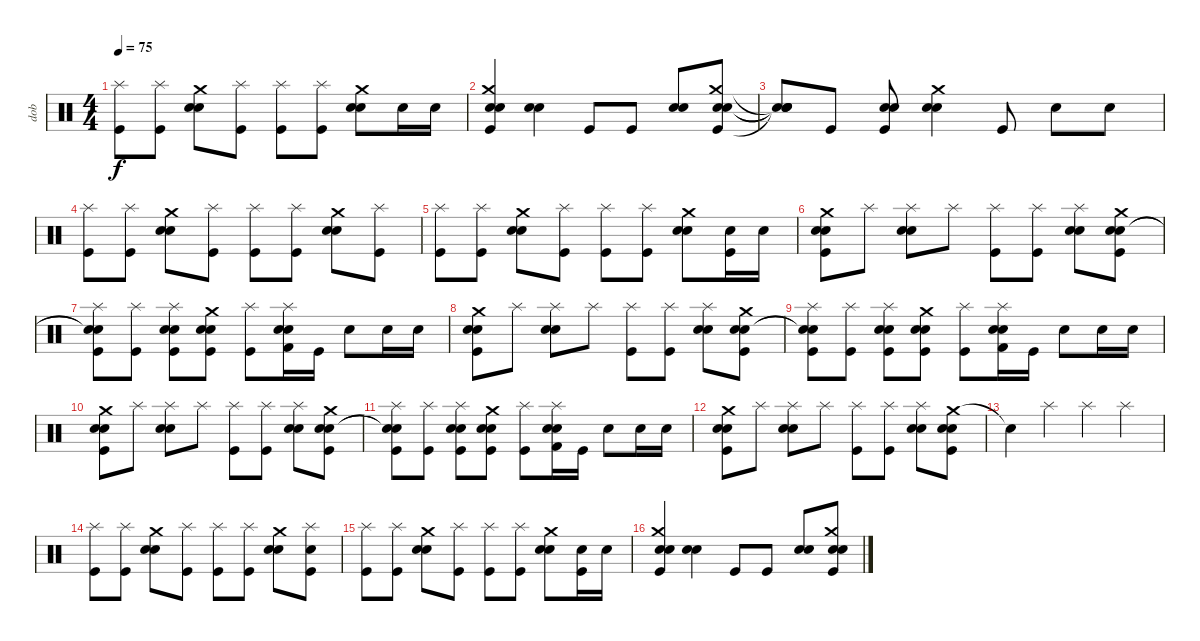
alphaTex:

\track ("dob" "dob") {instrument percussion}
\staff {score}
\articulation defaults
\ts (4 4)
\tempo 75
\clef neutral
\ks c
("Splash (hit)" "Kick (hit)").8{dy f} ("Splash (hit)" "Kick (hit)").8 ("Crash medium (hit)" "Snare (hit) 2" "Electric Snare (hit)").8 ("Splash (hit)" "Kick (hit)").8 ("Splash (hit)" "Kick (hit)").8 ("Splash (hit)" "Kick (hit)").8 ("Crash medium (hit)" "Snare (hit) 2" "Electric Snare (hit)").8 "Snare (hit) 2".16 "Snare (hit) 2".16 |
("Crash medium (hit)" "Snare (hit) 2" "Electric Snare (hit)" "Kick (hit)").4 ("Snare (hit) 2" "Electric Snare (hit)").4 "Kick (hit)".8 "Kick (hit)".8 ("Snare (hit) 2" "Electric Snare (hit)").8 ("Crash medium (hit)" "Snare (hit) 2" "Electric Snare (hit)" "Kick (hit)").8 |
("Snare (hit)"{t} "Snare (hit)"{t} "Snare (hit)"{t} "Snare (hit)"{t}).8 "Kick (hit)".8 ("Snare (hit) 2" "Electric Snare (hit)" "Kick (hit)").8 ("Crash medium (hit)" "Snare (hit) 2" "Electric Snare (hit)").4 "Kick (hit)".8 "Snare (hit) 2".8 "Snare (hit) 2".8 |
("Splash (hit)" "Kick (hit)").8 ("Splash (hit)" "Kick (hit)").8 ("Crash medium (hit)" "Snare (hit) 2" "Electric Snare (hit)").8 ("Splash (hit)" "Kick (hit)").8 ("Splash (hit)" "Kick (hit)").8 ("Splash (hit)" "Kick (hit)").8 ("Crash medium (hit)" "Snare (hit) 2" "Electric Snare (hit)").8 ("Splash (hit)" "Kick (hit)").8 |
("Splash (hit)" "Kick (hit)").8 ("Splash (hit)" "Kick (hit)").8 ("Crash medium (hit)" "Snare (hit) 2" "Electric Snare (hit)").8 ("Splash (hit)" "Kick (hit)").8 ("Splash (hit)" "Kick (hit)").8 ("Splash (hit)" "Kick (hit)").8 ("Crash medium (hit)" "Snare (hit) 2" "Electric Snare (hit)").8 ("Snare (hit) 2" "Kick (hit)").16 "Snare (hit) 2".16 |
("Crash medium (hit)" "Snare (hit) 2" "Electric Snare (hit)" "Kick (hit)").8 "Splash (hit)".8 ("Splash (hit)" "Snare (hit) 2" "Electric Snare (hit)").8 "Splash (hit)".8 ("Splash (hit)" "Kick (hit)").8 ("Splash (hit)" "Kick (hit)").8 ("Splash (hit)" "Snare (hit) 2" "Electric Snare (hit)").8 ("Crash medium (hit)" "Snare (hit) 2" "Electric Snare (hit)" "Kick (hit)").8 |
("Splash (hit)" "Snare (hit)"{t} "Snare (hit)"{t} "Kick (hit)").8 ("Splash (hit)" "Kick (hit)").8 ("Splash (hit)" "Snare (hit) 2" "Electric Snare (hit)" "Kick (hit)").8 ("Crash medium (hit)" "Snare (hit) 2" "Electric Snare (hit)" "Kick (hit)").8 ("Splash (hit)" "Kick (hit)").8 ("Splash (hit)" "Snare (hit) 2" "Electric Snare (hit)" "Kick (hit) 2").16 "Kick (hit)".16 "Snare (hit) 2".8 "Snare (hit) 2".16 "Snare (hit) 2".16 |
("Crash medium (hit)" "Snare (hit) 2" "Electric Snare (hit)" "Kick (hit)").8 "Splash (hit)".8 ("Splash (hit)" "Snare (hit) 2" "Electric Snare (hit)").8 "Splash (hit)".8 ("Splash (hit)" "Kick (hit)").8 ("Splash (hit)" "Kick (hit)").8 ("Splash (hit)" "Snare (hit) 2" "Electric Snare (hit)").8 ("Crash medium (hit)" "Snare (hit) 2" "Electric Snare (hit)" "Kick (hit)").8 |
("Splash (hit)" "Snare (hit)"{t} "Snare (hit)"{t} "Kick (hit)").8 ("Splash (hit)" "Kick (hit)").8 ("Splash (hit)" "Snare (hit) 2" "Electric Snare (hit)" "Kick (hit)").8 ("Crash medium (hit)" "Snare (hit) 2" "Electric Snare (hit)" "Kick (hit)").8 ("Splash (hit)" "Kick (hit)").8 ("Splash (hit)" "Snare (hit) 2" "Electric Snare (hit)" "Kick (hit) 2").16 "Kick (hit)".16 "Snare (hit) 2".8 "Snare (hit) 2".16 "Snare (hit) 2".16 |
("Crash medium (hit)" "Snare (hit) 2" "Electric Snare (hit)" "Kick (hit)").8 "Splash (hit)".8 ("Splash (hit)" "Snare (hit) 2" "Electric Snare (hit)").8 "Splash (hit)".8 ("Splash (hit)" "Kick (hit)").8 ("Splash (hit)" "Kick (hit)").8 ("Splash (hit)" "Snare (hit) 2" "Electric Snare (hit)").8 ("Crash medium (hit)" "Snare (hit) 2" "Electric Snare (hit)" "Kick (hit)").8 |
("Splash (hit)" "Snare (hit)"{t} "Snare (hit)"{t} "Kick (hit)").8 ("Splash (hit)" "Kick (hit)").8 ("Splash (hit)" "Snare (hit) 2" "Electric Snare (hit)" "Kick (hit)").8 ("Crash medium (hit)" "Snare (hit) 2" "Electric Snare (hit)" "Kick (hit)").8 ("Splash (hit)" "Kick (hit)").8 ("Splash (hit)" "Snare (hit) 2" "Electric Snare (hit)" "Kick (hit) 2").16 "Kick (hit)".16 "Snare (hit) 2".8 "Snare (hit) 2".16 "Snare (hit) 2".16 |
("Crash medium (hit)" "Snare (hit) 2" "Electric Snare (hit)" "Kick (hit)").8 "Splash (hit)".8 ("Splash (hit)" "Snare (hit) 2" "Electric Snare (hit)").8 "Splash (hit)".8 ("Splash (hit)" "Kick (hit)").8 ("Splash (hit)" "Kick (hit)").8 ("Splash (hit)" "Snare (hit) 2" "Electric Snare (hit)").8 ("Crash medium (hit)" "Snare (hit) 2" "Electric Snare (hit)" "Kick (hit)").8 |
"Snare (hit)"{t}.4 "Splash (hit)".4 "Splash (hit)".4 "Splash (hit)".4 |
("Splash (hit)" "Kick (hit)").8 ("Splash (hit)" "Kick (hit)").8 ("Crash medium (hit)" "Snare (hit) 2" "Electric Snare (hit)").8 ("Splash (hit)" "Kick (hit)").8 ("Splash (hit)" "Kick (hit)").8 ("Splash (hit)" "Kick (hit)").8 ("Crash medium (hit)" "Snare (hit) 2" "Electric Snare (hit)").8 ("Splash (hit)" "Snare (hit) 2" "Kick (hit)").8 |
("Splash (hit)" "Kick (hit)").8 ("Splash (hit)" "Kick (hit)").8 ("Crash medium (hit)" "Snare (hit) 2" "Electric Snare (hit)").8 ("Splash (hit)" "Kick (hit)").8 ("Splash (hit)" "Kick (hit)").8 ("Splash (hit)" "Kick (hit)").8 ("Crash medium (hit)" "Snare (hit) 2" "Electric Snare (hit)").8 ("Snare (hit) 2" "Kick (hit)").16 "Snare (hit) 2".16 |
("Crash medium (hit)" "Snare (hit) 2" "Electric Snare (hit)" "Kick (hit)").4 ("Snare (hit) 2" "Electric Snare (hit)").4 "Kick (hit)".8 "Kick (hit)".8 ("Snare (hit) 2" "Electric Snare (hit)").8 ("Crash medium (hit)" "Snare (hit) 2" "Electric Snare (hit)" "Kick (hit)").8
